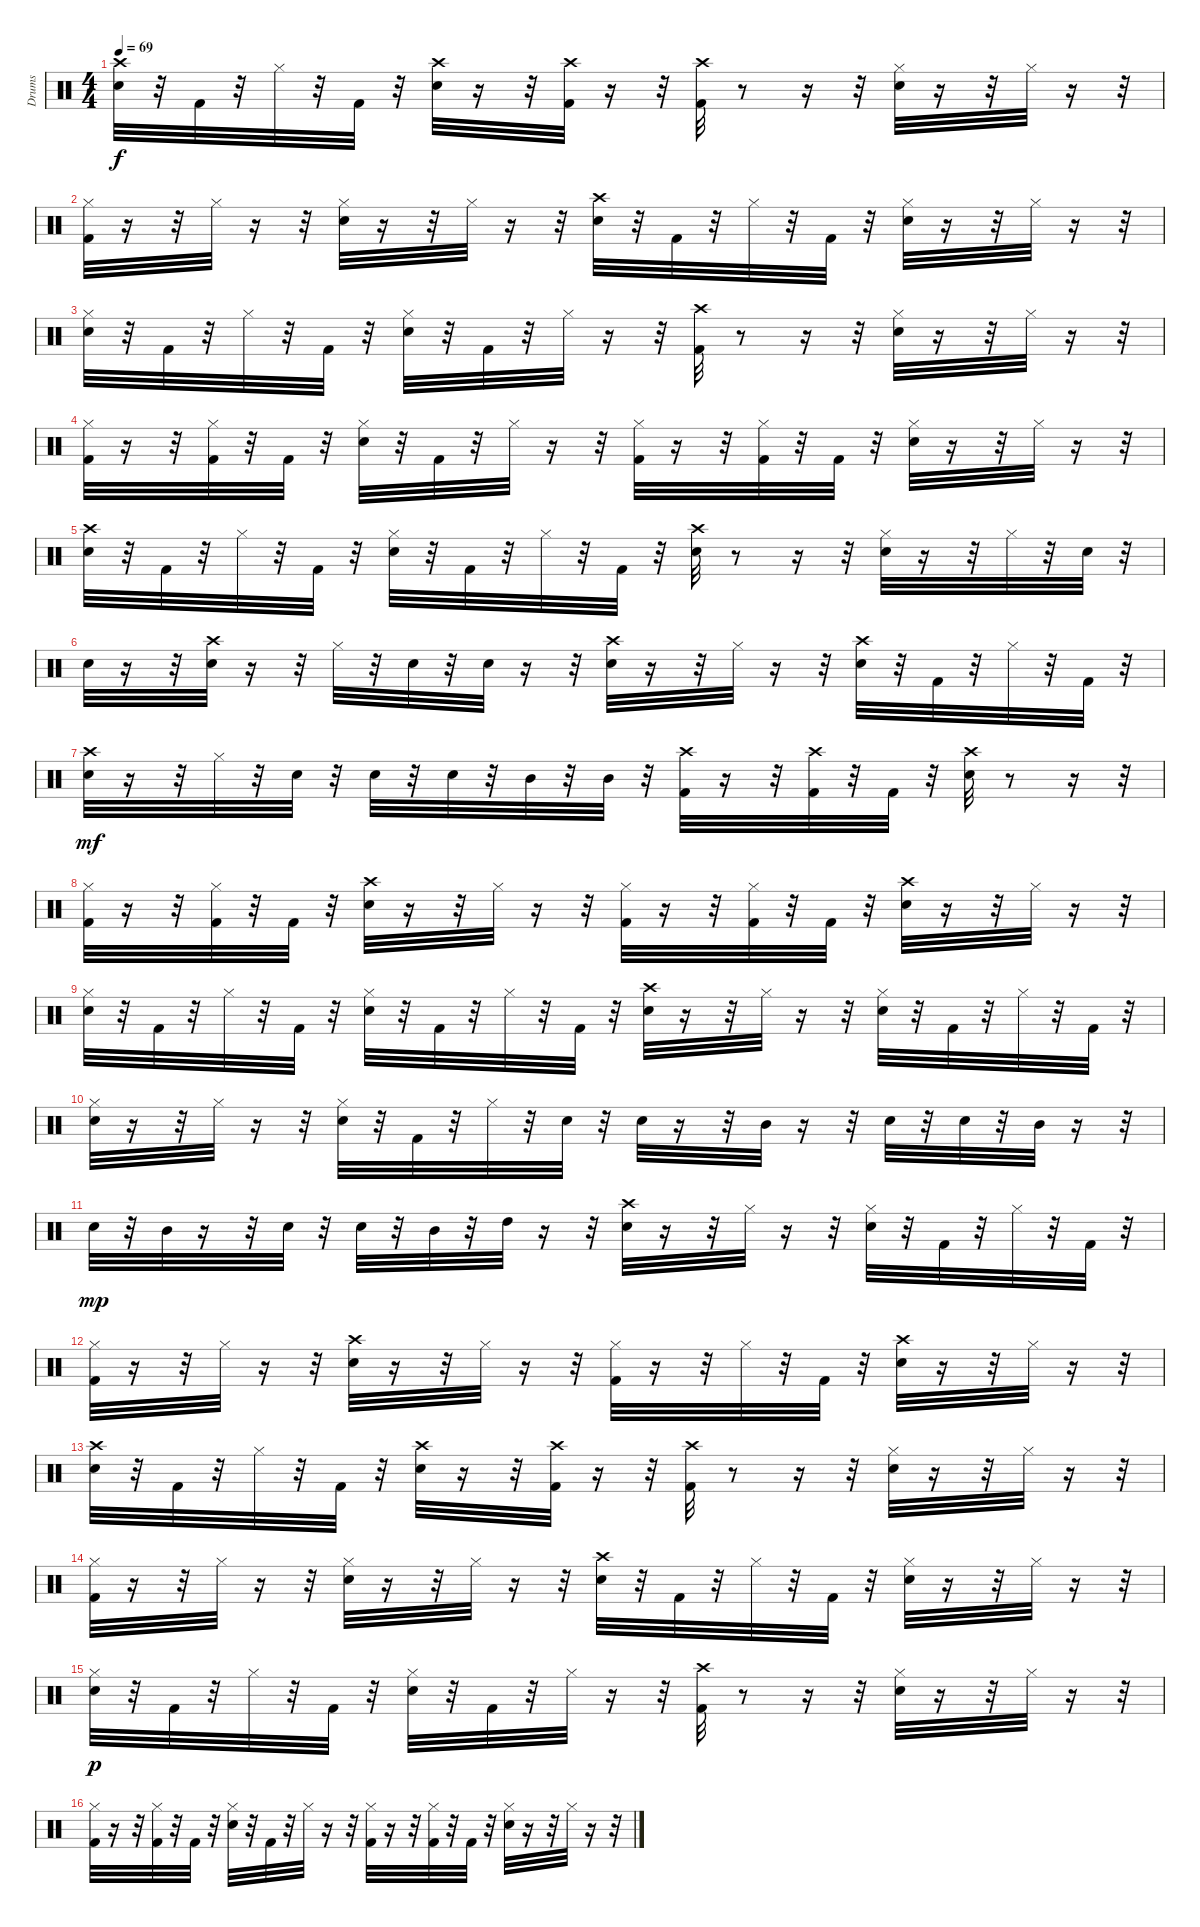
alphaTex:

\track ("Drums" "Drums") {instrument percussion}
\staff {score}
\articulation defaults
\ts (4 4)
\tempo 69
\clef neutral
\ks c
("Crash high (hit)" "Snare (hit) 2").32{dy f} r.32 "Kick (hit) 2".32 r.32 "Hi-Hat (closed)".32 r.32 "Kick (hit) 2".32 r.32 ("Crash high (hit)" "Snare (hit) 2").32 r.16 r.32 ("Crash high (hit)" "Kick (hit) 2").32 r.16 r.32 ("Crash high (hit)" "Kick (hit) 2").32 r.8 r.16 r.32 ("Hi-Hat (closed)" "Snare (hit) 2").32 r.16 r.32 "Hi-Hat (closed)".32 r.16 r.32 |
("Hi-Hat (closed)" "Kick (hit) 2").32 r.16 r.32 "Hi-Hat (closed)".32 r.16 r.32 ("Snare (hit) 2" "Hi-Hat (closed)").32 r.16 r.32 "Hi-Hat (closed)".32 r.16 r.32 ("Crash high (hit)" "Snare (hit) 2").32 r.32 "Kick (hit) 2".32 r.32 "Hi-Hat (closed)".32 r.32 "Kick (hit) 2".32 r.32 ("Snare (hit) 2" "Hi-Hat (closed)").32 r.16 r.32 "Hi-Hat (closed)".32 r.16 r.32 |
("Snare (hit) 2" "Hi-Hat (closed)").32 r.32 "Kick (hit) 2".32 r.32 "Hi-Hat (closed)".32 r.32 "Kick (hit) 2".32 r.32 ("Hi-Hat (closed)" "Snare (hit) 2").32 r.32 "Kick (hit) 2".32 r.32 "Hi-Hat (closed)".32 r.16 r.32 ("Crash high (hit)" "Kick (hit) 2").32 r.8 r.16 r.32 ("Hi-Hat (closed)" "Snare (hit) 2").32 r.16 r.32 "Hi-Hat (closed)".32 r.16 r.32 |
("Hi-Hat (closed)" "Kick (hit) 2").32 r.16 r.32 ("Hi-Hat (closed)" "Kick (hit) 2").32 r.32 "Kick (hit) 2".32 r.32 ("Snare (hit) 2" "Hi-Hat (closed)").32 r.32 "Kick (hit) 2".32 r.32 "Hi-Hat (closed)".32 r.16 r.32 ("Hi-Hat (closed)" "Kick (hit) 2").32 r.16 r.32 ("Hi-Hat (closed)" "Kick (hit) 2").32 r.32 "Kick (hit) 2".32 r.32 ("Snare (hit) 2" "Hi-Hat (closed)").32 r.16 r.32 "Hi-Hat (closed)".32 r.16 r.32 |
("Snare (hit) 2" "Crash high (hit)").32 r.32 "Kick (hit) 2".32 r.32 "Hi-Hat (closed)".32 r.32 "Kick (hit) 2".32 r.32 ("Snare (hit) 2" "Hi-Hat (closed)").32 r.32 "Kick (hit) 2".32 r.32 "Hi-Hat (closed)".32 r.32 "Kick (hit) 2".32 r.32 ("Crash high (hit)" "Snare (hit) 2").32 r.8 r.16 r.32 ("Hi-Hat (closed)" "Snare (hit) 2").32 r.16 r.32 "Hi-Hat (closed)".32 r.32 "Snare (hit) 2".32 r.32 |
"Snare (hit) 2".32 r.16 r.32 ("Crash high (hit)" "Snare (hit) 2").32 r.16 r.32 "Hi-Hat (closed)".32 r.32 "Snare (hit) 2".32 r.32 "Snare (hit) 2".32 r.16 r.32 ("Crash high (hit)" "Snare (hit) 2").32 r.16 r.32 "Hi-Hat (closed)".32 r.16 r.32 ("Crash high (hit)" "Snare (hit) 2").32 r.32 "Kick (hit) 2".32 r.32 "Hi-Hat (closed)".32 r.32 "Kick (hit) 2".32 r.32 |
("Crash high (hit)" "Snare (hit) 2").32{dy mf} r.16 r.32 "Hi-Hat (closed)".32 r.32 "Snare (hit) 2".32 r.32 "Snare (hit) 2".32 r.32 "Snare (hit) 2".32 r.32 "Mid Tom (hit)".32 r.32 "Mid Tom (hit)".32 r.32 ("Crash high (hit)" "Kick (hit) 2").32 r.16 r.32 ("Crash high (hit)" "Kick (hit) 2").32 r.32 "Kick (hit) 2".32 r.32 ("Crash high (hit)" "Snare (hit) 2").32 r.8 r.16 r.32 |
("Hi-Hat (closed)" "Kick (hit) 2").32 r.16 r.32 ("Hi-Hat (closed)" "Kick (hit) 2").32 r.32 "Kick (hit) 2".32 r.32 ("Crash high (hit)" "Snare (hit) 2").32 r.16 r.32 "Hi-Hat (closed)".32 r.16 r.32 ("Hi-Hat (closed)" "Kick (hit) 2").32 r.16 r.32 ("Hi-Hat (closed)" "Kick (hit) 2").32 r.32 "Kick (hit) 2".32 r.32 ("Crash high (hit)" "Snare (hit) 2").32 r.16 r.32 "Hi-Hat (closed)".32 r.16 r.32 |
("Snare (hit) 2" "Hi-Hat (closed)").32 r.32 "Kick (hit) 2".32 r.32 "Hi-Hat (closed)".32 r.32 "Kick (hit) 2".32 r.32 ("Snare (hit) 2" "Hi-Hat (closed)").32 r.32 "Kick (hit) 2".32 r.32 "Hi-Hat (closed)".32 r.32 "Kick (hit) 2".32 r.32 ("Crash high (hit)" "Snare (hit) 2").32 r.16 r.32 "Hi-Hat (closed)".32 r.16 r.32 ("Snare (hit) 2" "Hi-Hat (closed)").32 r.32 "Kick (hit) 2".32 r.32 "Hi-Hat (closed)".32 r.32 "Kick (hit) 2".32 r.32 |
("Hi-Hat (closed)" "Snare (hit) 2").32 r.16 r.32 "Hi-Hat (closed)".32 r.16 r.32 ("Hi-Hat (closed)" "Snare (hit) 2").32 r.32 "Kick (hit) 2".32 r.32 "Hi-Hat (closed)".32 r.32 "Snare (hit) 2".32 r.32 "Snare (hit) 2".32 r.16 r.32 "Mid Tom (hit)".32 r.16 r.32 "Snare (hit) 2".32 r.32 "Snare (hit) 2".32 r.32 "Mid Tom (hit)".32 r.16 r.32 |
"Snare (hit) 2".32{dy mp} r.32 "Mid Tom (hit)".32 r.16 r.32 "Snare (hit) 2".32 r.32 "Snare (hit) 2".32 r.32 "Mid Tom (hit)".32 r.32 "High Tom (hit)".32 r.16 r.32 ("Crash high (hit)" "Snare (hit) 2").32 r.16 r.32 "Hi-Hat (closed)".32 r.16 r.32 ("Snare (hit) 2" "Hi-Hat (closed)").32 r.32 "Kick (hit) 2".32 r.32 "Hi-Hat (closed)".32 r.32 "Kick (hit) 2".32 r.32 |
("Kick (hit) 2" "Hi-Hat (closed)").32 r.16 r.32 "Hi-Hat (closed)".32 r.16 r.32 ("Crash high (hit)" "Snare (hit) 2").32 r.16 r.32 "Hi-Hat (closed)".32 r.16 r.32 ("Hi-Hat (closed)" "Kick (hit) 2").32 r.16 r.32 "Hi-Hat (closed)".32 r.32 "Kick (hit) 2".32 r.32 ("Crash high (hit)" "Snare (hit) 2").32 r.16 r.32 "Hi-Hat (closed)".32 r.16 r.32 |
("Crash high (hit)" "Snare (hit) 2").32 r.32 "Kick (hit) 2".32 r.32 "Hi-Hat (closed)".32 r.32 "Kick (hit) 2".32 r.32 ("Crash high (hit)" "Snare (hit) 2").32 r.16 r.32 ("Crash high (hit)" "Kick (hit) 2").32 r.16 r.32 ("Crash high (hit)" "Kick (hit) 2").32 r.8 r.16 r.32 ("Hi-Hat (closed)" "Snare (hit) 2").32 r.16 r.32 "Hi-Hat (closed)".32 r.16 r.32 |
("Hi-Hat (closed)" "Kick (hit) 2").32 r.16 r.32 "Hi-Hat (closed)".32 r.16 r.32 ("Snare (hit) 2" "Hi-Hat (closed)").32 r.16 r.32 "Hi-Hat (closed)".32 r.16 r.32 ("Crash high (hit)" "Snare (hit) 2").32 r.32 "Kick (hit) 2".32 r.32 "Hi-Hat (closed)".32 r.32 "Kick (hit) 2".32 r.32 ("Snare (hit) 2" "Hi-Hat (closed)").32 r.16 r.32 "Hi-Hat (closed)".32 r.16 r.32 |
("Snare (hit) 2" "Hi-Hat (closed)").32{dy p} r.32 "Kick (hit) 2".32 r.32 "Hi-Hat (closed)".32 r.32 "Kick (hit) 2".32 r.32 ("Hi-Hat (closed)" "Snare (hit) 2").32 r.32 "Kick (hit) 2".32 r.32 "Hi-Hat (closed)".32 r.16 r.32 ("Crash high (hit)" "Kick (hit) 2").32 r.8 r.16 r.32 ("Hi-Hat (closed)" "Snare (hit) 2").32 r.16 r.32 "Hi-Hat (closed)".32 r.16 r.32 |
("Hi-Hat (closed)" "Kick (hit) 2").32 r.16 r.32 ("Hi-Hat (closed)" "Kick (hit) 2").32 r.32 "Kick (hit) 2".32 r.32 ("Snare (hit) 2" "Hi-Hat (closed)").32 r.32 "Kick (hit) 2".32 r.32 "Hi-Hat (closed)".32 r.16 r.32 ("Hi-Hat (closed)" "Kick (hit) 2").32 r.16 r.32 ("Hi-Hat (closed)" "Kick (hit) 2").32 r.32 "Kick (hit) 2".32 r.32 ("Snare (hit) 2" "Hi-Hat (closed)").32 r.16 r.32 "Hi-Hat (closed)".32 r.16 r.32
